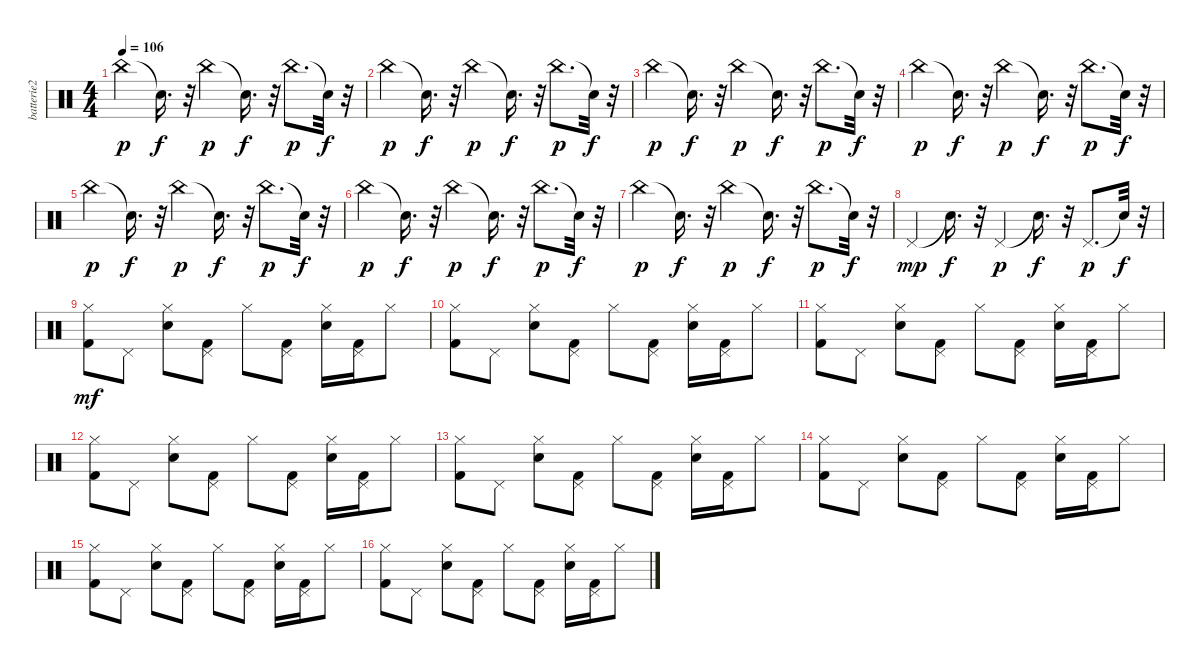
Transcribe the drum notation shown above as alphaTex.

\track ("batterie2" "batterie2") {instrument percussion}
\staff {score}
\articulation defaults
\ts (4 4)
\tempo 106
\clef neutral
\ks c "China (hit)".4{dy p} "Snare (hit)"{t}.16{d dy f}
r.32 "China (hit)".4{dy p} "Snare (hit)"{t}.16{d dy f} r.32 "China (hit)".8{d dy p} "Snare (hit)"{t}.32{dy f} r.32 |
"China (hit)".4{dy p} "Snare (hit)"{t}.16{d dy f} r.32 "China (hit)".4{dy p} "Snare (hit)"{t}.16{d dy f} r.32 "China (hit)".8{d dy p} "Snare (hit)"{t}.32{dy f} r.32 |
"China (hit)".4{dy p} "Snare (hit)"{t}.16{d dy f} r.32 "China (hit)".4{dy p} "Snare (hit)"{t}.16{d dy f} r.32 "China (hit)".8{d dy p} "Snare (hit)"{t}.32{dy f} r.32 |
"China (hit)".4{dy p} "Snare (hit)"{t}.16{d dy f} r.32 "China (hit)".4{dy p} "Snare (hit)"{t}.16{d dy f} r.32 "China (hit)".8{d dy p} "Snare (hit)"{t}.32{dy f} r.32 |
"China (hit)".4{dy p} "Snare (hit)"{t}.16{d dy f} r.32 "China (hit)".4{dy p} "Snare (hit)"{t}.16{d dy f} r.32 "China (hit)".8{d dy p} "Snare (hit)"{t}.32{dy f} r.32 |
"China (hit)".4{dy p} "Snare (hit)"{t}.16{d dy f} r.32 "China (hit)".4{dy p} "Snare (hit)"{t}.16{d dy f} r.32 "China (hit)".8{d dy p} "Snare (hit)"{t}.32{dy f} r.32 |
"China (hit)".4{dy p} "Snare (hit)"{t}.16{d dy f} r.32 "China (hit)".4{dy p} "Snare (hit)"{t}.16{d dy f} r.32 "China (hit)".8{d dy p} "Snare (hit)"{t}.32{dy f} r.32 |
"Pedal Hi-Hat (hit)".4{dy mp} "Snare (hit)"{t}.16{d dy f} r.32 "Pedal Hi-Hat (hit)".4{dy p} "Snare (hit)"{t}.16{d dy f} r.32 "Pedal Hi-Hat (hit)".8{d dy p} "Snare (hit)"{t}.32{dy f} r.32 |
("Kick (hit) 2" "Hi-Hat (closed)").8{dy mf} "Pedal Hi-Hat (hit)".8 ("Snare (hit) 2" "Hi-Hat (closed)").8 ("Kick (hit) 2" "Pedal Hi-Hat (hit)").8 "Hi-Hat (closed)".8 ("Kick (hit) 2" "Pedal Hi-Hat (hit)").8 ("Snare (hit) 2" "Hi-Hat (closed)").16 ("Kick (hit) 2" "Pedal Hi-Hat (hit)").16 "Hi-Hat (closed)".8 |
("Kick (hit) 2" "Hi-Hat (closed)").8 "Pedal Hi-Hat (hit)".8 ("Snare (hit) 2" "Hi-Hat (closed)").8 ("Kick (hit) 2" "Pedal Hi-Hat (hit)").8 "Hi-Hat (closed)".8 ("Kick (hit) 2" "Pedal Hi-Hat (hit)").8 ("Snare (hit) 2" "Hi-Hat (closed)").16 ("Kick (hit) 2" "Pedal Hi-Hat (hit)").16 "Hi-Hat (closed)".8 |
("Kick (hit) 2" "Hi-Hat (closed)").8 "Pedal Hi-Hat (hit)".8 ("Snare (hit) 2" "Hi-Hat (closed)").8 ("Kick (hit) 2" "Pedal Hi-Hat (hit)").8 "Hi-Hat (closed)".8 ("Kick (hit) 2" "Pedal Hi-Hat (hit)").8 ("Snare (hit) 2" "Hi-Hat (closed)").16 ("Kick (hit) 2" "Pedal Hi-Hat (hit)").16 "Hi-Hat (closed)".8 |
("Kick (hit) 2" "Hi-Hat (closed)").8 "Pedal Hi-Hat (hit)".8 ("Snare (hit) 2" "Hi-Hat (closed)").8 ("Kick (hit) 2" "Pedal Hi-Hat (hit)").8 "Hi-Hat (closed)".8 ("Kick (hit) 2" "Pedal Hi-Hat (hit)").8 ("Snare (hit) 2" "Hi-Hat (closed)").16 ("Kick (hit) 2" "Pedal Hi-Hat (hit)").16 "Hi-Hat (closed)".8 |
("Kick (hit) 2" "Hi-Hat (closed)").8 "Pedal Hi-Hat (hit)".8 ("Snare (hit) 2" "Hi-Hat (closed)").8 ("Kick (hit) 2" "Pedal Hi-Hat (hit)").8 "Hi-Hat (closed)".8 ("Kick (hit) 2" "Pedal Hi-Hat (hit)").8 ("Snare (hit) 2" "Hi-Hat (closed)").16 ("Kick (hit) 2" "Pedal Hi-Hat (hit)").16 "Hi-Hat (closed)".8 |
("Kick (hit) 2" "Hi-Hat (closed)").8 "Pedal Hi-Hat (hit)".8 ("Snare (hit) 2" "Hi-Hat (closed)").8 ("Kick (hit) 2" "Pedal Hi-Hat (hit)").8 "Hi-Hat (closed)".8 ("Kick (hit) 2" "Pedal Hi-Hat (hit)").8 ("Snare (hit) 2" "Hi-Hat (closed)").16 ("Kick (hit) 2" "Pedal Hi-Hat (hit)").16 "Hi-Hat (closed)".8 |
("Kick (hit) 2" "Hi-Hat (closed)").8 "Pedal Hi-Hat (hit)".8 ("Snare (hit) 2" "Hi-Hat (closed)").8 ("Kick (hit) 2" "Pedal Hi-Hat (hit)").8 "Hi-Hat (closed)".8 ("Kick (hit) 2" "Pedal Hi-Hat (hit)").8 ("Snare (hit) 2" "Hi-Hat (closed)").16 ("Kick (hit) 2" "Pedal Hi-Hat (hit)").16 "Hi-Hat (closed)".8 |
("Kick (hit) 2" "Hi-Hat (closed)").8 "Pedal Hi-Hat (hit)".8 ("Snare (hit) 2" "Hi-Hat (closed)").8 ("Kick (hit) 2" "Pedal Hi-Hat (hit)").8 "Hi-Hat (closed)".8 ("Kick (hit) 2" "Pedal Hi-Hat (hit)").8 ("Snare (hit) 2" "Hi-Hat (closed)").16 ("Kick (hit) 2" "Pedal Hi-Hat (hit)").16 "Hi-Hat (closed)".8
